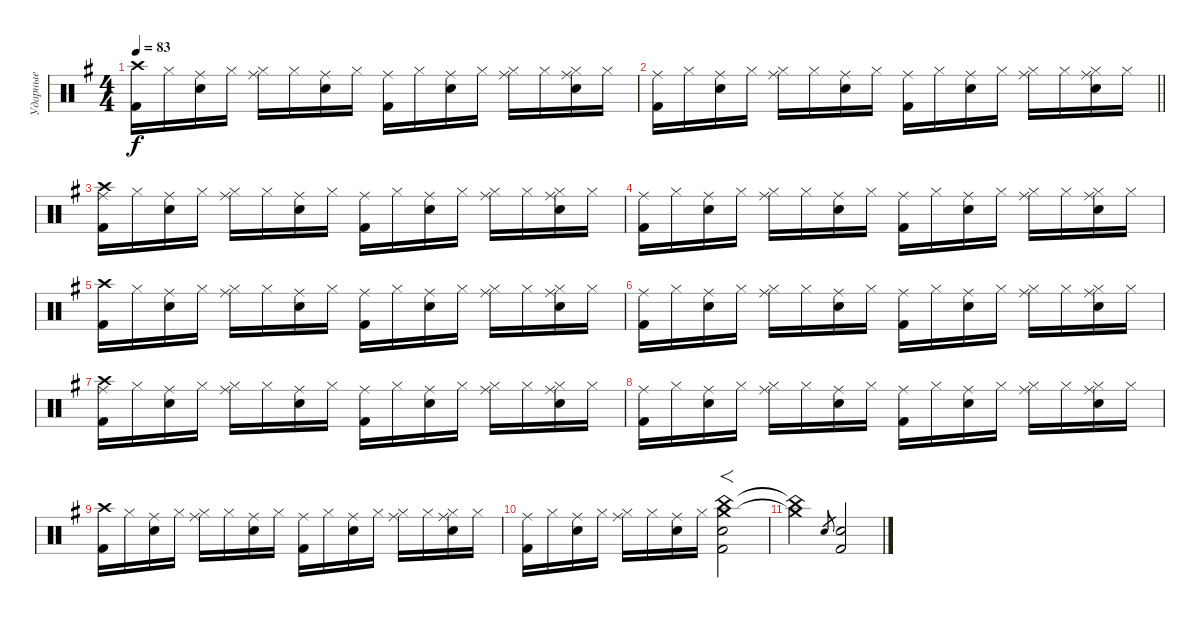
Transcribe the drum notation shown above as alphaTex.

\track ("Ударные" "Ударные") {instrument percussion}
\staff {score}
\articulation defaults
\ts (4 4)
\tempo 83
\clef neutral
\ks g
("Crash high (hit)" "Kick (hit) 2").16{dy f} "Hi-Hat (closed)".16 ("Ride (middle)" "Snare (hit) 2").16 "Hi-Hat (closed)".16 ("Ride (middle)" "Hi-Hat (closed)").16 "Hi-Hat (closed)".16 ("Ride (middle)" "Snare (hit) 2").16 "Hi-Hat (closed)".16 ("Ride (middle)" "Kick (hit) 2").16 "Hi-Hat (closed)".16 ("Ride (middle)" "Snare (hit) 2").16 "Hi-Hat (closed)".16 ("Ride (middle)" "Hi-Hat (closed)").16 "Hi-Hat (closed)".16 ("Ride (middle)" "Hi-Hat (closed)" "Snare (hit) 2").16 "Hi-Hat (closed)".16 |
\barLineRight lightlight
("Ride (middle)" "Kick (hit) 2").16 "Hi-Hat (closed)".16 ("Ride (middle)" "Snare (hit) 2").16 "Hi-Hat (closed)".16 ("Ride (middle)" "Hi-Hat (closed)").16 "Hi-Hat (closed)".16 ("Ride (middle)" "Snare (hit) 2").16 "Hi-Hat (closed)".16 ("Ride (middle)" "Kick (hit) 2").16 "Hi-Hat (closed)".16 ("Ride (middle)" "Snare (hit) 2").16 "Hi-Hat (closed)".16 ("Ride (middle)" "Hi-Hat (closed)").16 "Hi-Hat (closed)".16 ("Ride (middle)" "Hi-Hat (closed)" "Snare (hit) 2").16 "Hi-Hat (closed)".16 |
("Ride (middle)" "Crash high (hit)" "Kick (hit) 2").16 "Hi-Hat (closed)".16 ("Ride (middle)" "Snare (hit) 2").16 "Hi-Hat (closed)".16 ("Ride (middle)" "Hi-Hat (closed)").16 "Hi-Hat (closed)".16 ("Ride (middle)" "Snare (hit) 2").16 "Hi-Hat (closed)".16 ("Ride (middle)" "Kick (hit) 2").16 "Hi-Hat (closed)".16 ("Ride (middle)" "Snare (hit) 2").16 "Hi-Hat (closed)".16 ("Ride (middle)" "Hi-Hat (closed)").16 "Hi-Hat (closed)".16 ("Ride (middle)" "Hi-Hat (closed)" "Snare (hit) 2").16 "Hi-Hat (closed)".16 |
("Ride (middle)" "Kick (hit) 2").16 "Hi-Hat (closed)".16 ("Ride (middle)" "Snare (hit) 2").16 "Hi-Hat (closed)".16 ("Ride (middle)" "Hi-Hat (closed)").16 "Hi-Hat (closed)".16 ("Ride (middle)" "Snare (hit) 2").16 "Hi-Hat (closed)".16 ("Ride (middle)" "Kick (hit) 2").16 "Hi-Hat (closed)".16 ("Ride (middle)" "Snare (hit) 2").16 "Hi-Hat (closed)".16 ("Ride (middle)" "Hi-Hat (closed)").16 "Hi-Hat (closed)".16 ("Ride (middle)" "Hi-Hat (closed)" "Snare (hit) 2").16 "Hi-Hat (closed)".16 |
("Crash high (hit)" "Kick (hit) 2").16 "Hi-Hat (closed)".16 ("Ride (middle)" "Snare (hit) 2").16 "Hi-Hat (closed)".16 ("Ride (middle)" "Hi-Hat (closed)").16 "Hi-Hat (closed)".16 ("Ride (middle)" "Snare (hit) 2").16 "Hi-Hat (closed)".16 ("Ride (middle)" "Kick (hit) 2").16 "Hi-Hat (closed)".16 ("Ride (middle)" "Snare (hit) 2").16 "Hi-Hat (closed)".16 ("Ride (middle)" "Hi-Hat (closed)").16 "Hi-Hat (closed)".16 ("Ride (middle)" "Hi-Hat (closed)" "Snare (hit) 2").16 "Hi-Hat (closed)".16 |
("Ride (middle)" "Kick (hit) 2").16 "Hi-Hat (closed)".16 ("Ride (middle)" "Snare (hit) 2").16 "Hi-Hat (closed)".16 ("Ride (middle)" "Hi-Hat (closed)").16 "Hi-Hat (closed)".16 ("Ride (middle)" "Snare (hit) 2").16 "Hi-Hat (closed)".16 ("Ride (middle)" "Kick (hit) 2").16 "Hi-Hat (closed)".16 ("Ride (middle)" "Snare (hit) 2").16 "Hi-Hat (closed)".16 ("Ride (middle)" "Hi-Hat (closed)").16 "Hi-Hat (closed)".16 ("Ride (middle)" "Hi-Hat (closed)" "Snare (hit) 2").16 "Hi-Hat (closed)".16 |
("Ride (middle)" "Crash high (hit)" "Kick (hit) 2").16 "Hi-Hat (closed)".16 ("Ride (middle)" "Snare (hit) 2").16 "Hi-Hat (closed)".16 ("Ride (middle)" "Hi-Hat (closed)").16 "Hi-Hat (closed)".16 ("Ride (middle)" "Snare (hit) 2").16 "Hi-Hat (closed)".16 ("Ride (middle)" "Kick (hit) 2").16 "Hi-Hat (closed)".16 ("Ride (middle)" "Snare (hit) 2").16 "Hi-Hat (closed)".16 ("Ride (middle)" "Hi-Hat (closed)").16 "Hi-Hat (closed)".16 ("Ride (middle)" "Hi-Hat (closed)" "Snare (hit) 2").16 "Hi-Hat (closed)".16 |
("Ride (middle)" "Kick (hit) 2").16 "Hi-Hat (closed)".16 ("Ride (middle)" "Snare (hit) 2").16 "Hi-Hat (closed)".16 ("Ride (middle)" "Hi-Hat (closed)").16 "Hi-Hat (closed)".16 ("Ride (middle)" "Snare (hit) 2").16 "Hi-Hat (closed)".16 ("Ride (middle)" "Kick (hit) 2").16 "Hi-Hat (closed)".16 ("Ride (middle)" "Snare (hit) 2").16 "Hi-Hat (closed)".16 ("Ride (middle)" "Hi-Hat (closed)").16 "Hi-Hat (closed)".16 ("Ride (middle)" "Hi-Hat (closed)" "Snare (hit) 2").16 "Hi-Hat (closed)".16 |
("Crash high (hit)" "Kick (hit) 2").16 "Hi-Hat (closed)".16 ("Ride (middle)" "Snare (hit) 2").16 "Hi-Hat (closed)".16 ("Ride (middle)" "Hi-Hat (closed)").16 "Hi-Hat (closed)".16 ("Ride (middle)" "Snare (hit) 2").16 "Hi-Hat (closed)".16 ("Ride (middle)" "Kick (hit) 2").16 "Hi-Hat (closed)".16 ("Ride (middle)" "Snare (hit) 2").16 "Hi-Hat (closed)".16 ("Ride (middle)" "Hi-Hat (closed)").16 "Hi-Hat (closed)".16 ("Ride (middle)" "Hi-Hat (closed)" "Snare (hit) 2").16 "Hi-Hat (closed)".16 |
("Ride (middle)" "Kick (hit) 2").16 "Hi-Hat (closed)".16 ("Ride (middle)" "Snare (hit) 2").16 "Hi-Hat (closed)".16 ("Ride (middle)" "Hi-Hat (closed)").16 "Hi-Hat (closed)".16 ("Ride (middle)" "Snare (hit) 2").16 "Hi-Hat (closed)".16 ("China (hit)" "Crash medium (hit)" "Snare (hit) 2" "Kick (hit) 2").2{f} |
("China (hit)"{t} "Crash medium (hit)"{t}).2 "Snare (hit) 2".8{gr} ("Snare (hit) 2" "Kick (hit) 2").2
